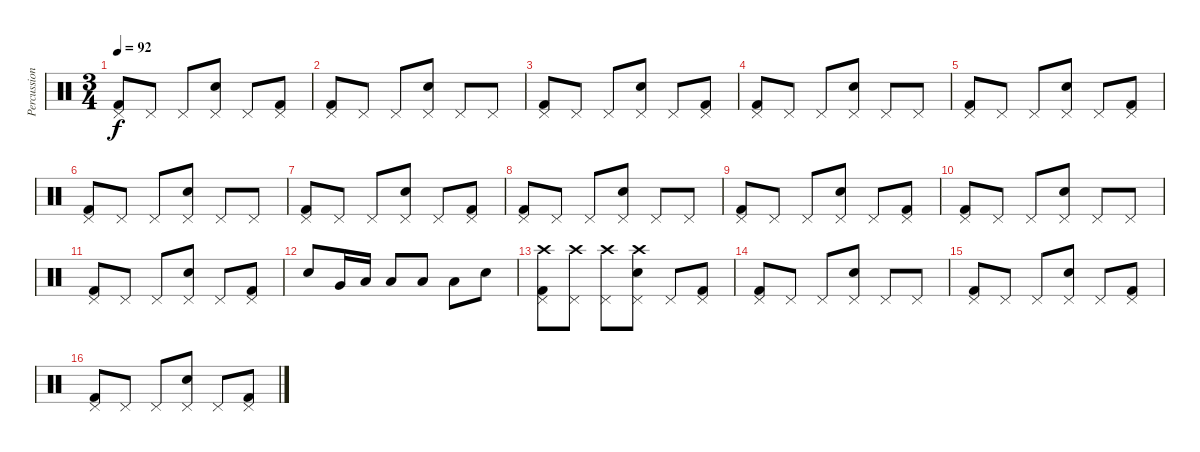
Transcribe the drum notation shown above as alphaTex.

\track ("Percussion" "Percussion") {instrument percussion}
\staff {score}
\articulation defaults
\ts (3 4)
\tempo 92
\clef neutral
\ks c
("Pedal Hi-Hat (hit)" "Kick (hit) 2").8{dy f} "Pedal Hi-Hat (hit)".8 "Pedal Hi-Hat (hit)".8 ("Pedal Hi-Hat (hit)" "Electric Snare (hit)").8 "Pedal Hi-Hat (hit)".8 ("Pedal Hi-Hat (hit)" "Kick (hit) 2").8 |
("Pedal Hi-Hat (hit)" "Kick (hit) 2").8 "Pedal Hi-Hat (hit)".8 "Pedal Hi-Hat (hit)".8 ("Pedal Hi-Hat (hit)" "Electric Snare (hit)").8 "Pedal Hi-Hat (hit)".8 "Pedal Hi-Hat (hit)".8 |
("Pedal Hi-Hat (hit)" "Kick (hit) 2").8 "Pedal Hi-Hat (hit)".8 "Pedal Hi-Hat (hit)".8 ("Pedal Hi-Hat (hit)" "Electric Snare (hit)").8 "Pedal Hi-Hat (hit)".8 ("Pedal Hi-Hat (hit)" "Kick (hit) 2").8 |
("Pedal Hi-Hat (hit)" "Kick (hit) 2").8 "Pedal Hi-Hat (hit)".8 "Pedal Hi-Hat (hit)".8 ("Pedal Hi-Hat (hit)" "Electric Snare (hit)").8 "Pedal Hi-Hat (hit)".8 "Pedal Hi-Hat (hit)".8 |
("Pedal Hi-Hat (hit)" "Kick (hit) 2").8 "Pedal Hi-Hat (hit)".8 "Pedal Hi-Hat (hit)".8 ("Pedal Hi-Hat (hit)" "Electric Snare (hit)").8 "Pedal Hi-Hat (hit)".8 ("Pedal Hi-Hat (hit)" "Kick (hit) 2").8 |
("Pedal Hi-Hat (hit)" "Kick (hit) 2").8 "Pedal Hi-Hat (hit)".8 "Pedal Hi-Hat (hit)".8 ("Pedal Hi-Hat (hit)" "Electric Snare (hit)").8 "Pedal Hi-Hat (hit)".8 "Pedal Hi-Hat (hit)".8 |
("Pedal Hi-Hat (hit)" "Kick (hit) 2").8 "Pedal Hi-Hat (hit)".8 "Pedal Hi-Hat (hit)".8 ("Pedal Hi-Hat (hit)" "Electric Snare (hit)").8 "Pedal Hi-Hat (hit)".8 ("Pedal Hi-Hat (hit)" "Kick (hit) 2").8 |
("Pedal Hi-Hat (hit)" "Kick (hit) 2").8 "Pedal Hi-Hat (hit)".8 "Pedal Hi-Hat (hit)".8 ("Pedal Hi-Hat (hit)" "Electric Snare (hit)").8 "Pedal Hi-Hat (hit)".8 "Pedal Hi-Hat (hit)".8 |
("Pedal Hi-Hat (hit)" "Kick (hit) 2").8 "Pedal Hi-Hat (hit)".8 "Pedal Hi-Hat (hit)".8 ("Pedal Hi-Hat (hit)" "Electric Snare (hit)").8 "Pedal Hi-Hat (hit)".8 ("Pedal Hi-Hat (hit)" "Kick (hit) 2").8 |
("Pedal Hi-Hat (hit)" "Kick (hit) 2").8 "Pedal Hi-Hat (hit)".8 "Pedal Hi-Hat (hit)".8 ("Pedal Hi-Hat (hit)" "Electric Snare (hit)").8 "Pedal Hi-Hat (hit)".8 "Pedal Hi-Hat (hit)".8 |
("Pedal Hi-Hat (hit)" "Kick (hit) 2").8 "Pedal Hi-Hat (hit)".8 "Pedal Hi-Hat (hit)".8 ("Pedal Hi-Hat (hit)" "Electric Snare (hit)").8 "Pedal Hi-Hat (hit)".8 ("Pedal Hi-Hat (hit)" "Kick (hit) 2").8 |
"Electric Snare (hit)".8 "Very Low Tom (hit)".16 "Low Tom (hit)".16 "Low Tom (hit)".8 "Low Tom (hit)".8 "Low Tom (hit)".8 "Snare (hit)".8 |
("Pedal Hi-Hat (hit)" "Kick (hit) 2" "Crash high (hit)").8 ("Pedal Hi-Hat (hit)" "Crash high (hit)").8 ("Pedal Hi-Hat (hit)" "Crash high (hit)").8 ("Pedal Hi-Hat (hit)" "Electric Snare (hit)" "Crash high (hit)").8 "Pedal Hi-Hat (hit)".8 ("Pedal Hi-Hat (hit)" "Kick (hit) 2").8 |
("Pedal Hi-Hat (hit)" "Kick (hit) 2").8 "Pedal Hi-Hat (hit)".8 "Pedal Hi-Hat (hit)".8 ("Pedal Hi-Hat (hit)" "Electric Snare (hit)").8 "Pedal Hi-Hat (hit)".8 "Pedal Hi-Hat (hit)".8 |
("Pedal Hi-Hat (hit)" "Kick (hit) 2").8 "Pedal Hi-Hat (hit)".8 "Pedal Hi-Hat (hit)".8 ("Pedal Hi-Hat (hit)" "Electric Snare (hit)").8 "Pedal Hi-Hat (hit)".8 ("Pedal Hi-Hat (hit)" "Kick (hit) 2").8 |
("Pedal Hi-Hat (hit)" "Kick (hit) 2").8 "Pedal Hi-Hat (hit)".8 "Pedal Hi-Hat (hit)".8 ("Pedal Hi-Hat (hit)" "Electric Snare (hit)").8 "Pedal Hi-Hat (hit)".8 ("Pedal Hi-Hat (hit)" "Kick (hit) 2").8
